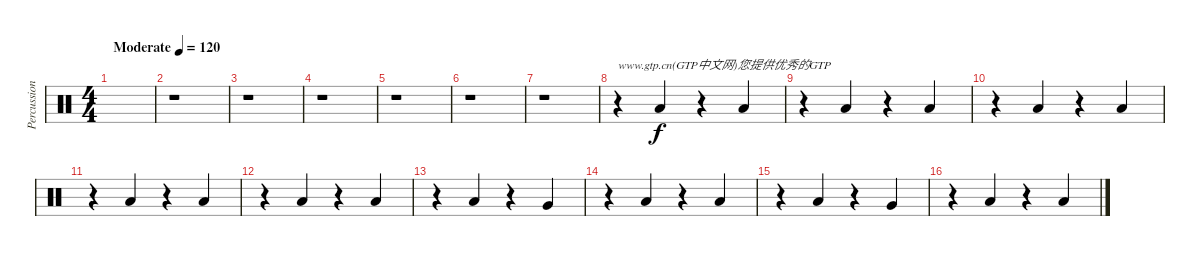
\track ("Percussion" "Percussion") {instrument percussion}
\staff {score}
\articulation defaults
\ts (4 4)
\tempo (120 "Moderate")
\clef neutral
\ks c
|
r.1 |
r.1 |
r.1 |
r.1 |
r.1 |
r.1 |
r.4{txt "www.gtp.cn(GTP中文网)您提供优秀的GTP"} "Low Floor Tom (hit)".4 r.4 "Low Floor Tom (hit)".4 |
r.4 "Low Floor Tom (hit)".4 r.4 "Low Floor Tom (hit)".4 |
r.4 "Low Floor Tom (hit)".4 r.4 "Low Floor Tom (hit)".4 |
r.4 "Low Floor Tom (hit)".4 r.4 "Low Floor Tom (hit)".4 |
r.4 "Low Floor Tom (hit)".4 r.4 "Low Floor Tom (hit)".4 |
r.4 "Low Floor Tom (hit)".4 r.4 "Very Low Tom (hit)".4 |
r.4 "Low Floor Tom (hit)".4 r.4 "Low Floor Tom (hit)".4 |
r.4 "Low Floor Tom (hit)".4 r.4 "Very Low Tom (hit)".4 |
r.4 "Low Floor Tom (hit)".4 r.4 "Low Floor Tom (hit)".4
